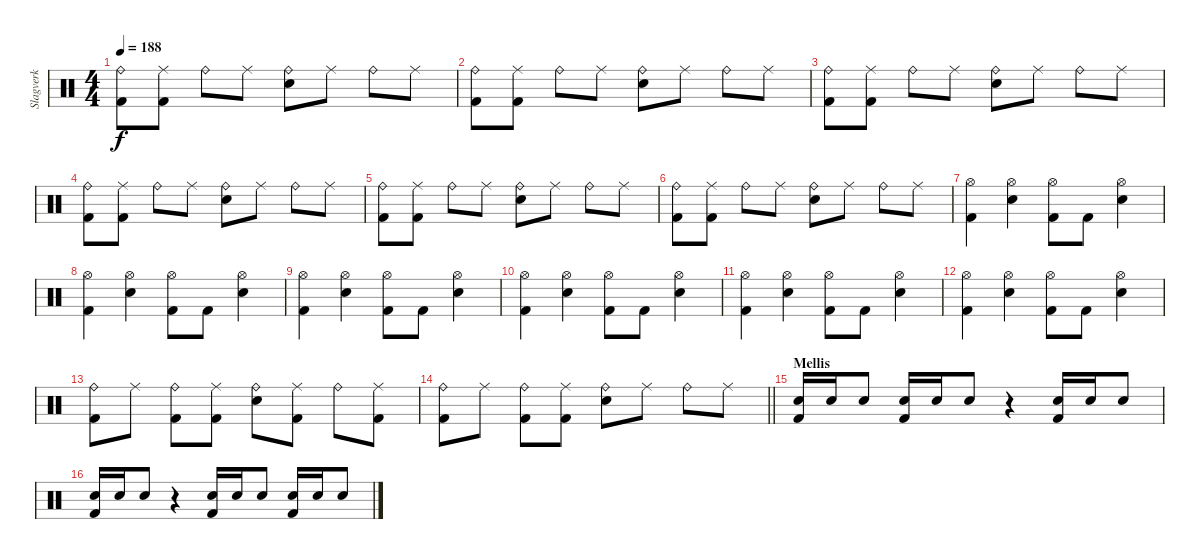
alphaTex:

\track ("Slagverk" "Slagverk") {instrument percussion}
\staff {score}
\articulation defaults
\ts (4 4)
\tempo 188
\clef neutral
\ks c
("Ride (bell)" "Kick (hit) 2").8{dy f} ("Ride (middle)" "Kick (hit) 2").8 "Ride (bell)".8 "Ride (middle)".8 ("Ride (bell)" "Electric Snare (hit)").8 "Ride (middle)".8 "Ride (bell)".8 "Ride (middle)".8 |
("Ride (bell)" "Kick (hit) 2").8 ("Ride (middle)" "Kick (hit) 2").8 "Ride (bell)".8 "Ride (middle)".8 ("Ride (bell)" "Electric Snare (hit)").8 "Ride (middle)".8 "Ride (bell)".8 "Ride (middle)".8 |
("Ride (bell)" "Kick (hit) 2").8 ("Ride (middle)" "Kick (hit) 2").8 "Ride (bell)".8 "Ride (middle)".8 ("Ride (bell)" "Electric Snare (hit)").8 "Ride (middle)".8 "Ride (bell)".8 "Ride (middle)".8 |
("Ride (bell)" "Kick (hit) 2").8 ("Ride (middle)" "Kick (hit) 2").8 "Ride (bell)".8 "Ride (middle)".8 ("Ride (bell)" "Electric Snare (hit)").8 "Ride (middle)".8 "Ride (bell)".8 "Ride (middle)".8 |
("Ride (bell)" "Kick (hit) 2").8 ("Ride (middle)" "Kick (hit) 2").8 "Ride (bell)".8 "Ride (middle)".8 ("Ride (bell)" "Electric Snare (hit)").8 "Ride (middle)".8 "Ride (bell)".8 "Ride (middle)".8 |
("Ride (bell)" "Kick (hit) 2").8 ("Ride (middle)" "Kick (hit) 2").8 "Ride (bell)".8 "Ride (middle)".8 ("Ride (bell)" "Electric Snare (hit)").8 "Ride (middle)".8 "Ride (bell)".8 "Ride (middle)".8 |
("Hi-Hat (open)" "Kick (hit) 2").4 ("Hi-Hat (open)" "Electric Snare (hit)").4 ("Hi-Hat (open)" "Kick (hit) 2").8 "Kick (hit) 2".8 ("Hi-Hat (open)" "Electric Snare (hit)").4 |
("Hi-Hat (open)" "Kick (hit) 2").4 ("Hi-Hat (open)" "Electric Snare (hit)").4 ("Hi-Hat (open)" "Kick (hit) 2").8 "Kick (hit) 2".8 ("Hi-Hat (open)" "Electric Snare (hit)").4 |
("Hi-Hat (open)" "Kick (hit) 2").4 ("Hi-Hat (open)" "Electric Snare (hit)").4 ("Hi-Hat (open)" "Kick (hit) 2").8 "Kick (hit) 2".8 ("Hi-Hat (open)" "Electric Snare (hit)").4 |
("Hi-Hat (open)" "Kick (hit) 2").4 ("Hi-Hat (open)" "Electric Snare (hit)").4 ("Hi-Hat (open)" "Kick (hit) 2").8 "Kick (hit) 2".8 ("Hi-Hat (open)" "Electric Snare (hit)").4 |
("Hi-Hat (open)" "Kick (hit) 2").4 ("Hi-Hat (open)" "Electric Snare (hit)").4 ("Hi-Hat (open)" "Kick (hit) 2").8 "Kick (hit) 2".8 ("Hi-Hat (open)" "Electric Snare (hit)").4 |
("Hi-Hat (open)" "Kick (hit) 2").4 ("Hi-Hat (open)" "Electric Snare (hit)").4 ("Hi-Hat (open)" "Kick (hit) 2").8 "Kick (hit) 2".8 ("Hi-Hat (open)" "Electric Snare (hit)").4 |
("Ride (bell)" "Kick (hit) 2").8 "Ride (middle)".8 ("Ride (bell)" "Kick (hit) 2").8 ("Ride (middle)" "Kick (hit) 2").8 ("Ride (bell)" "Electric Snare (hit)").8 ("Ride (middle)" "Kick (hit) 2").8 "Ride (bell)".8 ("Ride (middle)" "Kick (hit) 2").8 |
\barLineRight lightlight
("Ride (bell)" "Kick (hit) 2").8 "Ride (middle)".8 ("Ride (bell)" "Kick (hit) 2").8 ("Ride (middle)" "Kick (hit) 2").8 ("Ride (bell)" "Electric Snare (hit)").8 "Ride (middle)".8 "Ride (bell)".8 "Ride (middle)".8 |
\section ("" "Mellis")
("Electric Snare (hit)" "Kick (hit) 2").16 "Electric Snare (hit)".16 "Electric Snare (hit)".8 ("Electric Snare (hit)" "Kick (hit) 2").16 "Electric Snare (hit)".16 "Electric Snare (hit)".8 r.4 ("Electric Snare (hit)" "Kick (hit) 2").16 "Electric Snare (hit)".16 "Electric Snare (hit)".8 |
("Electric Snare (hit)" "Kick (hit) 2").16 "Electric Snare (hit)".16 "Electric Snare (hit)".8 r.4 ("Electric Snare (hit)" "Kick (hit) 2").16 "Electric Snare (hit)".16 "Electric Snare (hit)".8 ("Electric Snare (hit)" "Kick (hit) 2").16 "Electric Snare (hit)".16 "Electric Snare (hit)".8
